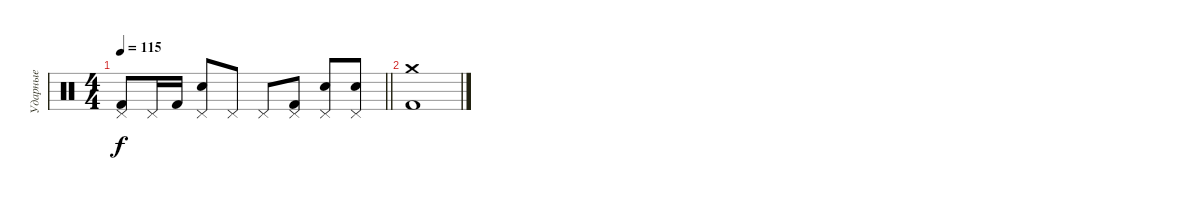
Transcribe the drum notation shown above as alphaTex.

\track ("Ударные" "Ударные") {instrument percussion}
\staff {score}
\articulation defaults
\ts (4 4)
\tempo 115
\clef neutral
\barLineRight lightlight
\ks c
("Pedal Hi-Hat (hit)" "Kick (hit) 2").8{dy f} "Pedal Hi-Hat (hit)".16 "Kick (hit) 2".16 ("Pedal Hi-Hat (hit)" "Electric Snare (hit)").8 "Pedal Hi-Hat (hit)".8 "Pedal Hi-Hat (hit)".8 ("Pedal Hi-Hat (hit)" "Kick (hit) 2").8 ("Pedal Hi-Hat (hit)" "Electric Snare (hit)").8 ("Pedal Hi-Hat (hit)" "Electric Snare (hit)").8 |
("Crash medium (hit)" "Kick (hit) 2").1
